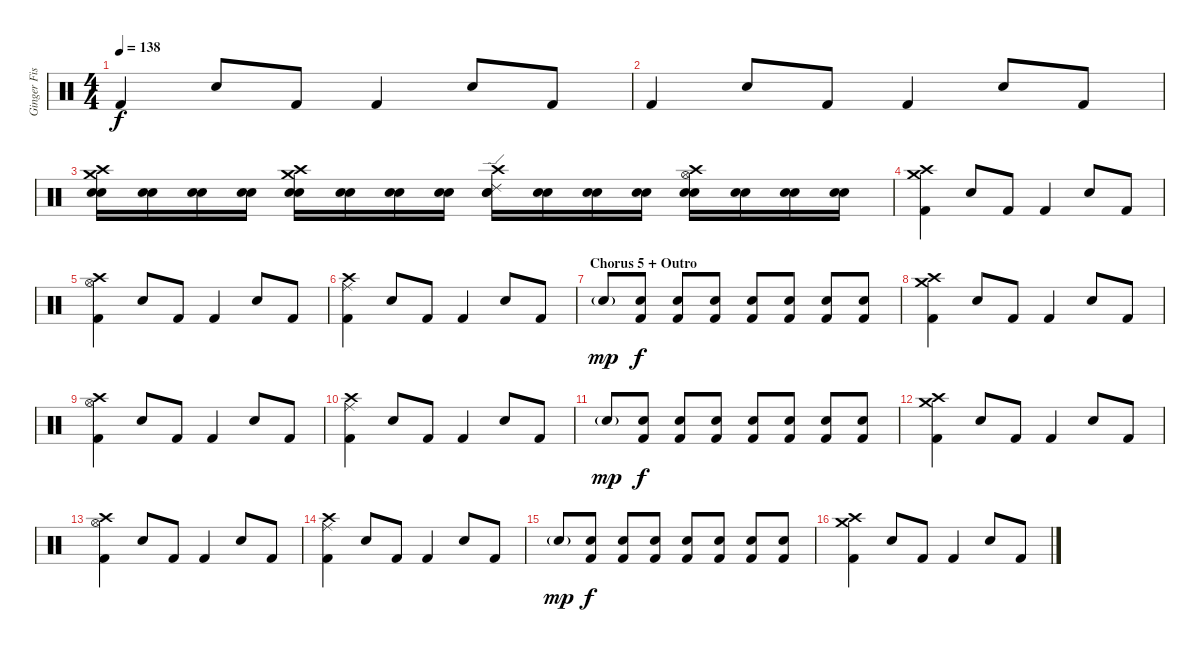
\track ("Ginger Fish [Drums]" "Ginger Fis") {instrument percussion}
\staff {score}
\articulation defaults
\ts (4 4)
\tempo 138
\clef neutral
\ks c "Kick (hit) 2".4{dy f} "Snare (hit) 2".8 "Kick (hit) 2".8 "Kick (hit) 2".4 "Snare (hit) 2".8 "Kick (hit) 2".8
|
"Kick (hit) 2".4 "Snare (hit) 2".8 "Kick (hit) 2".8 "Kick (hit) 2".4 "Snare (hit) 2".8 "Kick (hit) 2".8 |
("Snare (hit) 2" "Snare (hit) 2" "Crash medium (hit)" "Crash high (hit)").16 ("Snare (hit) 2" "Snare (hit) 2").16 ("Snare (hit) 2" "Snare (hit) 2").16 ("Snare (hit) 2" "Snare (hit) 2").16 ("Snare (hit) 2" "Snare (hit) 2" "Crash high (hit)" "Crash medium (hit)").16 ("Snare (hit) 2" "Snare (hit) 2").16 ("Snare (hit) 2" "Snare (hit) 2").16 ("Snare (hit) 2" "Snare (hit) 2").16 ("Snare (hit) 2" "Snare (hit) 2" "Crash high (hit)" "Ride (edge) 2").16 ("Snare (hit) 2" "Snare (hit) 2").16 ("Snare (hit) 2" "Snare (hit) 2").16 ("Snare (hit) 2" "Snare (hit) 2").16 ("Snare (hit) 2" "Snare (hit) 2" "Crash high (hit)" "Hi-Hat (open)").16 ("Snare (hit) 2" "Snare (hit) 2").16 ("Snare (hit) 2" "Snare (hit) 2").16 ("Snare (hit) 2" "Snare (hit) 2").16 |
("Kick (hit) 2" "Crash high (hit)" "Crash medium (hit)").4 "Snare (hit) 2".8 "Kick (hit) 2".8 "Kick (hit) 2".4 "Snare (hit) 2".8 "Kick (hit) 2".8 |
("Kick (hit) 2" "Crash high (hit)" "Hi-Hat (open)").4 "Snare (hit) 2".8 "Kick (hit) 2".8 "Kick (hit) 2".4 "Snare (hit) 2".8 "Kick (hit) 2".8 |
("Kick (hit) 2" "Crash high (hit)" "Ride (middle)").4 "Snare (hit) 2".8 "Kick (hit) 2".8 "Kick (hit) 2".4 "Snare (hit) 2".8 "Kick (hit) 2".8 |
\section ("" "Chorus 5 + Outro")
"Snare (hit) 2"{g}.8{dy mp} ("Snare (hit) 2" "Kick (hit) 2").8{dy f} ("Snare (hit) 2" "Kick (hit) 2").8 ("Snare (hit) 2" "Kick (hit) 2").8 ("Snare (hit) 2" "Kick (hit) 2").8 ("Snare (hit) 2" "Kick (hit) 2").8 ("Snare (hit) 2" "Kick (hit) 2").8 ("Snare (hit) 2" "Kick (hit) 2").8 |
("Kick (hit) 2" "Crash high (hit)" "Crash medium (hit)").4 "Snare (hit) 2".8 "Kick (hit) 2".8 "Kick (hit) 2".4 "Snare (hit) 2".8 "Kick (hit) 2".8 |
("Kick (hit) 2" "Crash high (hit)" "Hi-Hat (open)").4 "Snare (hit) 2".8 "Kick (hit) 2".8 "Kick (hit) 2".4 "Snare (hit) 2".8 "Kick (hit) 2".8 |
("Kick (hit) 2" "Crash high (hit)" "Ride (middle)").4 "Snare (hit) 2".8 "Kick (hit) 2".8 "Kick (hit) 2".4 "Snare (hit) 2".8 "Kick (hit) 2".8 |
"Snare (hit) 2"{g}.8{dy mp} ("Snare (hit) 2" "Kick (hit) 2").8{dy f} ("Snare (hit) 2" "Kick (hit) 2").8 ("Snare (hit) 2" "Kick (hit) 2").8 ("Snare (hit) 2" "Kick (hit) 2").8 ("Snare (hit) 2" "Kick (hit) 2").8 ("Snare (hit) 2" "Kick (hit) 2").8 ("Snare (hit) 2" "Kick (hit) 2").8 |
("Kick (hit) 2" "Crash high (hit)" "Crash medium (hit)").4 "Snare (hit) 2".8 "Kick (hit) 2".8 "Kick (hit) 2".4 "Snare (hit) 2".8 "Kick (hit) 2".8 |
("Kick (hit) 2" "Crash high (hit)" "Hi-Hat (open)").4 "Snare (hit) 2".8 "Kick (hit) 2".8 "Kick (hit) 2".4 "Snare (hit) 2".8 "Kick (hit) 2".8 |
("Kick (hit) 2" "Crash high (hit)" "Ride (middle)").4 "Snare (hit) 2".8 "Kick (hit) 2".8 "Kick (hit) 2".4 "Snare (hit) 2".8 "Kick (hit) 2".8 |
"Snare (hit) 2"{g}.8{dy mp} ("Snare (hit) 2" "Kick (hit) 2").8{dy f} ("Snare (hit) 2" "Kick (hit) 2").8 ("Snare (hit) 2" "Kick (hit) 2").8 ("Snare (hit) 2" "Kick (hit) 2").8 ("Snare (hit) 2" "Kick (hit) 2").8 ("Snare (hit) 2" "Kick (hit) 2").8 ("Snare (hit) 2" "Kick (hit) 2").8 |
("Kick (hit) 2" "Crash high (hit)" "Crash medium (hit)").4 "Snare (hit) 2".8 "Kick (hit) 2".8 "Kick (hit) 2".4 "Snare (hit) 2".8 "Kick (hit) 2".8
